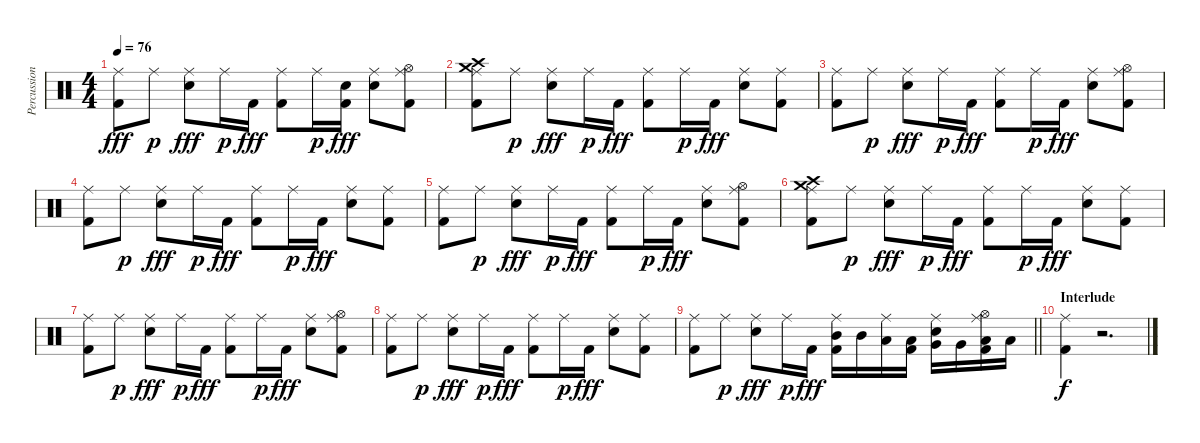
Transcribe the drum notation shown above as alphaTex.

\track ("Percussions" "Percussion") {instrument percussion}
\staff {score}
\articulation defaults
\ts (4 4)
\tempo 76
\clef neutral
\ks c
("Ride (middle)" "Kick (hit) 2").8{dy fff} "Ride (middle)".8{dy p} ("Ride (middle)" "Electric Snare (hit)").8{dy fff} "Ride (middle)".16{dy p} "Kick (hit) 2".16{dy fff} ("Ride (middle)" "Kick (hit) 2").8 "Ride (middle)".16{dy p} ("Electric Snare (hit)" "Kick (hit) 2").16{dy fff} ("Ride (middle)" "Electric Snare (hit)").8 ("Ride (middle)" "Hi-Hat (open)" "Kick (hit) 2").8 |
("Ride (middle)" "Crash medium (hit)" "Crash high (hit)" "Kick (hit) 2").8 "Ride (middle)".8{dy p} ("Ride (middle)" "Electric Snare (hit)").8{dy fff} "Ride (middle)".16{dy p} "Kick (hit) 2".16{dy fff} ("Ride (middle)" "Kick (hit) 2").8 "Ride (middle)".16{dy p} "Kick (hit) 2".16{dy fff} ("Ride (middle)" "Electric Snare (hit)").8 ("Ride (middle)" "Kick (hit) 2").8 |
("Ride (middle)" "Kick (hit) 2").8 "Ride (middle)".8{dy p} ("Ride (middle)" "Electric Snare (hit)").8{dy fff} "Ride (middle)".16{dy p} "Kick (hit) 2".16{dy fff} ("Ride (middle)" "Kick (hit) 2").8 "Ride (middle)".16{dy p} "Kick (hit) 2".16{dy fff} ("Ride (middle)" "Electric Snare (hit)").8 ("Ride (middle)" "Hi-Hat (open)" "Kick (hit) 2").8 |
("Ride (middle)" "Kick (hit) 2").8 "Ride (middle)".8{dy p} ("Ride (middle)" "Electric Snare (hit)").8{dy fff} "Ride (middle)".16{dy p} "Kick (hit) 2".16{dy fff} ("Ride (middle)" "Kick (hit) 2").8 "Ride (middle)".16{dy p} "Kick (hit) 2".16{dy fff} ("Ride (middle)" "Electric Snare (hit)").8 ("Ride (middle)" "Kick (hit) 2").8 |
("Ride (middle)" "Kick (hit) 2").8 "Ride (middle)".8{dy p} ("Ride (middle)" "Electric Snare (hit)").8{dy fff} "Ride (middle)".16{dy p} "Kick (hit) 2".16{dy fff} ("Ride (middle)" "Kick (hit) 2").8 "Ride (middle)".16{dy p} "Kick (hit) 2".16{dy fff} ("Ride (middle)" "Electric Snare (hit)").8 ("Ride (middle)" "Hi-Hat (open)" "Kick (hit) 2").8 |
("Ride (middle)" "Crash medium (hit)" "Crash high (hit)" "Kick (hit) 2").8 "Ride (middle)".8{dy p} ("Ride (middle)" "Electric Snare (hit)").8{dy fff} "Ride (middle)".16{dy p} "Kick (hit) 2".16{dy fff} ("Ride (middle)" "Kick (hit) 2").8 "Ride (middle)".16{dy p} "Kick (hit) 2".16{dy fff} ("Ride (middle)" "Electric Snare (hit)").8 ("Ride (middle)" "Kick (hit) 2").8 |
("Ride (middle)" "Kick (hit) 2").8 "Ride (middle)".8{dy p} ("Ride (middle)" "Electric Snare (hit)").8{dy fff} "Ride (middle)".16{dy p} "Kick (hit) 2".16{dy fff} ("Ride (middle)" "Kick (hit) 2").8 "Ride (middle)".16{dy p} "Kick (hit) 2".16{dy fff} ("Ride (middle)" "Electric Snare (hit)").8 ("Ride (middle)" "Hi-Hat (open)" "Kick (hit) 2").8 |
("Ride (middle)" "Kick (hit) 2").8 "Ride (middle)".8{dy p} ("Ride (middle)" "Electric Snare (hit)").8{dy fff} "Ride (middle)".16{dy p} "Kick (hit) 2".16{dy fff} ("Ride (middle)" "Kick (hit) 2").8 "Ride (middle)".16{dy p} "Kick (hit) 2".16{dy fff} ("Ride (middle)" "Electric Snare (hit)").8 ("Ride (middle)" "Kick (hit) 2").8 |
\barLineRight lightlight
("Ride (middle)" "Kick (hit) 2").8 "Ride (middle)".8{dy p} ("Ride (middle)" "Electric Snare (hit)").8{dy fff} "Ride (middle)".16{dy p} "Kick (hit) 2".16{dy fff} ("Ride (middle)" "Mid Tom (hit)" "Kick (hit) 2").16 "Mid Tom (hit)".16 ("Ride (middle)" "Low Tom (hit)").16 ("Low Tom (hit)" "Kick (hit) 2").16 ("Ride (middle)" "Electric Snare (hit)" "Very Low Tom (hit)").16 "Very Low Tom (hit)".16 ("Ride (middle)" "Hi-Hat (open)" "Low Floor Tom (hit)" "Kick (hit) 2").16 "Low Floor Tom (hit)".16 |
\section ("" "Interlude")
("Ride (middle)" "Kick (hit) 2").4{dy f} r.2{d}
